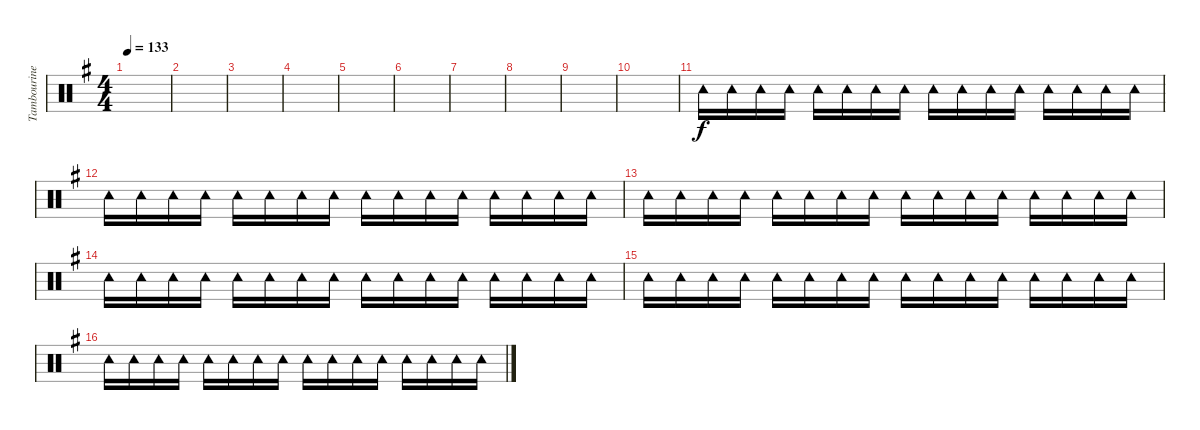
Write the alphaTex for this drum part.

\track ("Tambourine" "Tambourine") {instrument percussion}
\staff {score}
\articulation defaults
\ts (4 4)
\tempo 133
\clef neutral
\ks g
|
|
|
|
|
|
|
|
|
|
"Tambourine (hit)".16 "Tambourine (hit)".16 "Tambourine (hit)".16 "Tambourine (hit)".16 "Tambourine (hit)".16 "Tambourine (hit)".16 "Tambourine (hit)".16 "Tambourine (hit)".16 "Tambourine (hit)".16 "Tambourine (hit)".16 "Tambourine (hit)".16 "Tambourine (hit)".16 "Tambourine (hit)".16 "Tambourine (hit)".16 "Tambourine (hit)".16 "Tambourine (hit)".16 |
"Tambourine (hit)".16 "Tambourine (hit)".16 "Tambourine (hit)".16 "Tambourine (hit)".16 "Tambourine (hit)".16 "Tambourine (hit)".16 "Tambourine (hit)".16 "Tambourine (hit)".16 "Tambourine (hit)".16 "Tambourine (hit)".16 "Tambourine (hit)".16 "Tambourine (hit)".16 "Tambourine (hit)".16 "Tambourine (hit)".16 "Tambourine (hit)".16 "Tambourine (hit)".16 |
"Tambourine (hit)".16 "Tambourine (hit)".16 "Tambourine (hit)".16 "Tambourine (hit)".16 "Tambourine (hit)".16 "Tambourine (hit)".16 "Tambourine (hit)".16 "Tambourine (hit)".16 "Tambourine (hit)".16 "Tambourine (hit)".16 "Tambourine (hit)".16 "Tambourine (hit)".16 "Tambourine (hit)".16 "Tambourine (hit)".16 "Tambourine (hit)".16 "Tambourine (hit)".16 |
"Tambourine (hit)".16 "Tambourine (hit)".16 "Tambourine (hit)".16 "Tambourine (hit)".16 "Tambourine (hit)".16 "Tambourine (hit)".16 "Tambourine (hit)".16 "Tambourine (hit)".16 "Tambourine (hit)".16 "Tambourine (hit)".16 "Tambourine (hit)".16 "Tambourine (hit)".16 "Tambourine (hit)".16 "Tambourine (hit)".16 "Tambourine (hit)".16 "Tambourine (hit)".16 |
"Tambourine (hit)".16 "Tambourine (hit)".16 "Tambourine (hit)".16 "Tambourine (hit)".16 "Tambourine (hit)".16 "Tambourine (hit)".16 "Tambourine (hit)".16 "Tambourine (hit)".16 "Tambourine (hit)".16 "Tambourine (hit)".16 "Tambourine (hit)".16 "Tambourine (hit)".16 "Tambourine (hit)".16 "Tambourine (hit)".16 "Tambourine (hit)".16 "Tambourine (hit)".16 |
"Tambourine (hit)".16 "Tambourine (hit)".16 "Tambourine (hit)".16 "Tambourine (hit)".16 "Tambourine (hit)".16 "Tambourine (hit)".16 "Tambourine (hit)".16 "Tambourine (hit)".16 "Tambourine (hit)".16 "Tambourine (hit)".16 "Tambourine (hit)".16 "Tambourine (hit)".16 "Tambourine (hit)".16 "Tambourine (hit)".16 "Tambourine (hit)".16 "Tambourine (hit)".16
